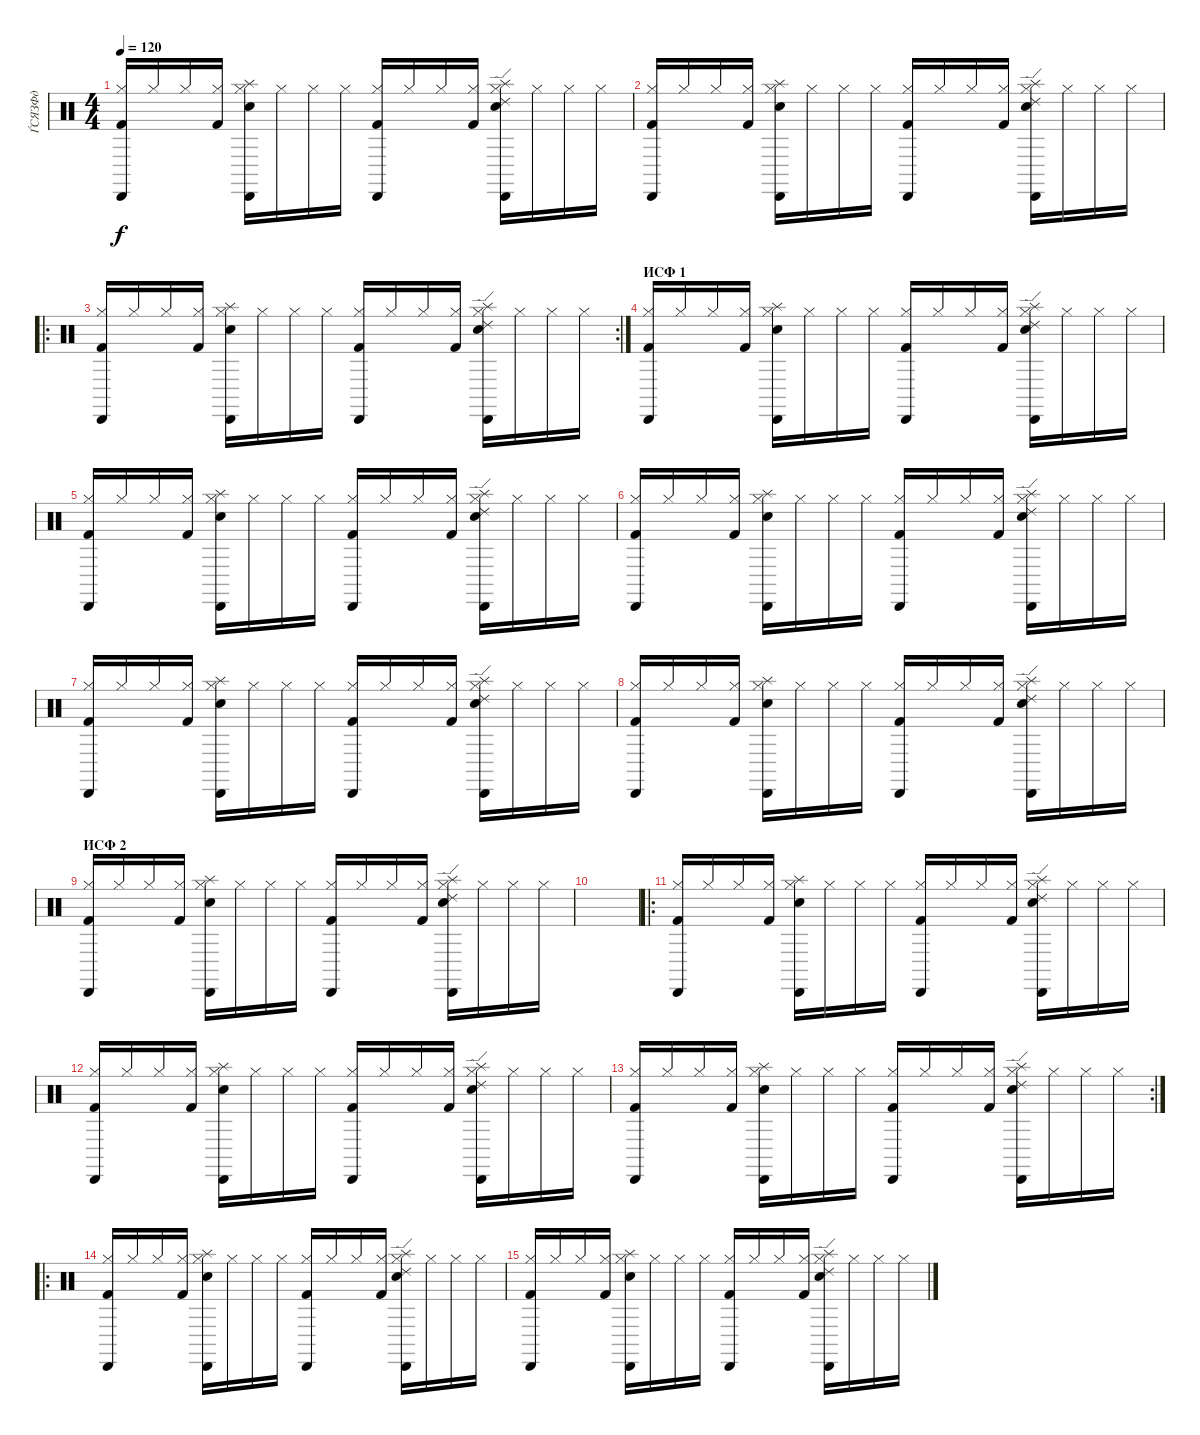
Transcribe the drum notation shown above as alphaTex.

\track ("ЃСЯЗФд" "ЃСЯЗФд") {instrument percussion}
\staff {score}
\articulation defaults
\ts (4 4)
\tempo 120
\clef neutral
\ks aminor
("Hi-Hat (closed)" "Kick (hit) 2" "Cabasa (hit)").16{dy f volume 12} "Hi-Hat (closed)".16 "Hi-Hat (closed)".16 ("Hi-Hat (closed)" "Kick (hit) 2").16 ("Hi-Hat (closed)" "Snare (hit) 2" "Cabasa (hit)" "Splash (hit)").16 "Hi-Hat (closed)".16 "Hi-Hat (closed)".16 "Hi-Hat (closed)".16 ("Hi-Hat (closed)" "Kick (hit) 2" "Cabasa (hit)").16 "Hi-Hat (closed)".16 "Hi-Hat (closed)".16 ("Hi-Hat (closed)" "Kick (hit) 2").16 ("Hi-Hat (closed)" "Snare (hit) 2" "Cabasa (hit)" "Ride (edge) 2" "Splash (hit)").16 "Hi-Hat (closed)".16 "Hi-Hat (closed)".16 "Hi-Hat (closed)".16 |
("Hi-Hat (closed)" "Kick (hit) 2" "Cabasa (hit)").16{volume 12} "Hi-Hat (closed)".16 "Hi-Hat (closed)".16 ("Hi-Hat (closed)" "Kick (hit) 2").16 ("Hi-Hat (closed)" "Snare (hit) 2" "Cabasa (hit)" "Splash (hit)").16 "Hi-Hat (closed)".16 "Hi-Hat (closed)".16 "Hi-Hat (closed)".16 ("Hi-Hat (closed)" "Kick (hit) 2" "Cabasa (hit)").16 "Hi-Hat (closed)".16 "Hi-Hat (closed)".16 ("Hi-Hat (closed)" "Kick (hit) 2").16 ("Hi-Hat (closed)" "Snare (hit) 2" "Cabasa (hit)" "Ride (edge) 2" "Splash (hit)").16 "Hi-Hat (closed)".16 "Hi-Hat (closed)".16 "Hi-Hat (closed)".16 |
\ro
\rc 2
("Hi-Hat (closed)" "Kick (hit) 2" "Cabasa (hit)").16{volume 12} "Hi-Hat (closed)".16 "Hi-Hat (closed)".16 ("Hi-Hat (closed)" "Kick (hit) 2").16 ("Hi-Hat (closed)" "Snare (hit) 2" "Cabasa (hit)" "Splash (hit)").16 "Hi-Hat (closed)".16 "Hi-Hat (closed)".16 "Hi-Hat (closed)".16 ("Hi-Hat (closed)" "Kick (hit) 2" "Cabasa (hit)").16 "Hi-Hat (closed)".16 "Hi-Hat (closed)".16 ("Hi-Hat (closed)" "Kick (hit) 2").16 ("Hi-Hat (closed)" "Snare (hit) 2" "Cabasa (hit)" "Ride (edge) 2" "Splash (hit)").16 "Hi-Hat (closed)".16 "Hi-Hat (closed)".16 "Hi-Hat (closed)".16 |
\section ("" "ИСФ 1")
("Hi-Hat (closed)" "Kick (hit) 2" "Cabasa (hit)").16{volume 12} "Hi-Hat (closed)".16 "Hi-Hat (closed)".16 ("Hi-Hat (closed)" "Kick (hit) 2").16 ("Hi-Hat (closed)" "Snare (hit) 2" "Cabasa (hit)" "Splash (hit)").16 "Hi-Hat (closed)".16 "Hi-Hat (closed)".16 "Hi-Hat (closed)".16 ("Hi-Hat (closed)" "Kick (hit) 2" "Cabasa (hit)").16 "Hi-Hat (closed)".16 "Hi-Hat (closed)".16 ("Hi-Hat (closed)" "Kick (hit) 2").16 ("Hi-Hat (closed)" "Snare (hit) 2" "Cabasa (hit)" "Ride (edge) 2" "Splash (hit)").16 "Hi-Hat (closed)".16 "Hi-Hat (closed)".16 "Hi-Hat (closed)".16 |
("Hi-Hat (closed)" "Kick (hit) 2" "Cabasa (hit)").16{volume 12} "Hi-Hat (closed)".16 "Hi-Hat (closed)".16 ("Hi-Hat (closed)" "Kick (hit) 2").16 ("Hi-Hat (closed)" "Snare (hit) 2" "Cabasa (hit)" "Splash (hit)").16 "Hi-Hat (closed)".16 "Hi-Hat (closed)".16 "Hi-Hat (closed)".16 ("Hi-Hat (closed)" "Kick (hit) 2" "Cabasa (hit)").16 "Hi-Hat (closed)".16 "Hi-Hat (closed)".16 ("Hi-Hat (closed)" "Kick (hit) 2").16 ("Hi-Hat (closed)" "Snare (hit) 2" "Cabasa (hit)" "Ride (edge) 2" "Splash (hit)").16 "Hi-Hat (closed)".16 "Hi-Hat (closed)".16 "Hi-Hat (closed)".16 |
("Hi-Hat (closed)" "Kick (hit) 2" "Cabasa (hit)").16{volume 12} "Hi-Hat (closed)".16 "Hi-Hat (closed)".16 ("Hi-Hat (closed)" "Kick (hit) 2").16 ("Hi-Hat (closed)" "Snare (hit) 2" "Cabasa (hit)" "Splash (hit)").16 "Hi-Hat (closed)".16 "Hi-Hat (closed)".16 "Hi-Hat (closed)".16 ("Hi-Hat (closed)" "Kick (hit) 2" "Cabasa (hit)").16 "Hi-Hat (closed)".16 "Hi-Hat (closed)".16 ("Hi-Hat (closed)" "Kick (hit) 2").16 ("Hi-Hat (closed)" "Snare (hit) 2" "Cabasa (hit)" "Ride (edge) 2" "Splash (hit)").16 "Hi-Hat (closed)".16 "Hi-Hat (closed)".16 "Hi-Hat (closed)".16 |
("Hi-Hat (closed)" "Kick (hit) 2" "Cabasa (hit)").16{volume 12} "Hi-Hat (closed)".16 "Hi-Hat (closed)".16 ("Hi-Hat (closed)" "Kick (hit) 2").16 ("Hi-Hat (closed)" "Snare (hit) 2" "Cabasa (hit)" "Splash (hit)").16 "Hi-Hat (closed)".16 "Hi-Hat (closed)".16 "Hi-Hat (closed)".16 ("Hi-Hat (closed)" "Kick (hit) 2" "Cabasa (hit)").16 "Hi-Hat (closed)".16 "Hi-Hat (closed)".16 ("Hi-Hat (closed)" "Kick (hit) 2").16 ("Hi-Hat (closed)" "Snare (hit) 2" "Cabasa (hit)" "Ride (edge) 2" "Splash (hit)").16 "Hi-Hat (closed)".16 "Hi-Hat (closed)".16 "Hi-Hat (closed)".16 |
("Hi-Hat (closed)" "Kick (hit) 2" "Cabasa (hit)").16{volume 12} "Hi-Hat (closed)".16 "Hi-Hat (closed)".16 ("Hi-Hat (closed)" "Kick (hit) 2").16 ("Hi-Hat (closed)" "Snare (hit) 2" "Cabasa (hit)" "Splash (hit)").16 "Hi-Hat (closed)".16 "Hi-Hat (closed)".16 "Hi-Hat (closed)".16 ("Hi-Hat (closed)" "Kick (hit) 2" "Cabasa (hit)").16 "Hi-Hat (closed)".16 "Hi-Hat (closed)".16 ("Hi-Hat (closed)" "Kick (hit) 2").16 ("Hi-Hat (closed)" "Snare (hit) 2" "Cabasa (hit)" "Ride (edge) 2" "Splash (hit)").16 "Hi-Hat (closed)".16 "Hi-Hat (closed)".16 "Hi-Hat (closed)".16 |
\section ("" "ИСФ 2")
("Hi-Hat (closed)" "Kick (hit) 2" "Cabasa (hit)").16{volume 12} "Hi-Hat (closed)".16 "Hi-Hat (closed)".16 ("Hi-Hat (closed)" "Kick (hit) 2").16 ("Hi-Hat (closed)" "Snare (hit) 2" "Cabasa (hit)" "Splash (hit)").16 "Hi-Hat (closed)".16 "Hi-Hat (closed)".16 "Hi-Hat (closed)".16 ("Hi-Hat (closed)" "Kick (hit) 2" "Cabasa (hit)").16 "Hi-Hat (closed)".16 "Hi-Hat (closed)".16 ("Hi-Hat (closed)" "Kick (hit) 2").16 ("Hi-Hat (closed)" "Snare (hit) 2" "Cabasa (hit)" "Ride (edge) 2" "Splash (hit)").16 "Hi-Hat (closed)".16 "Hi-Hat (closed)".16 "Hi-Hat (closed)".16 |
|
\ro
("Hi-Hat (closed)" "Kick (hit) 2" "Cabasa (hit)").16{volume 12} "Hi-Hat (closed)".16 "Hi-Hat (closed)".16 ("Hi-Hat (closed)" "Kick (hit) 2").16 ("Hi-Hat (closed)" "Snare (hit) 2" "Cabasa (hit)" "Splash (hit)").16 "Hi-Hat (closed)".16 "Hi-Hat (closed)".16 "Hi-Hat (closed)".16 ("Hi-Hat (closed)" "Kick (hit) 2" "Cabasa (hit)").16 "Hi-Hat (closed)".16 "Hi-Hat (closed)".16 ("Hi-Hat (closed)" "Kick (hit) 2").16 ("Hi-Hat (closed)" "Snare (hit) 2" "Cabasa (hit)" "Ride (edge) 2" "Splash (hit)").16 "Hi-Hat (closed)".16 "Hi-Hat (closed)".16 "Hi-Hat (closed)".16 |
("Hi-Hat (closed)" "Kick (hit) 2" "Cabasa (hit)").16{volume 12} "Hi-Hat (closed)".16 "Hi-Hat (closed)".16 ("Hi-Hat (closed)" "Kick (hit) 2").16 ("Hi-Hat (closed)" "Snare (hit) 2" "Cabasa (hit)" "Splash (hit)").16 "Hi-Hat (closed)".16 "Hi-Hat (closed)".16 "Hi-Hat (closed)".16 ("Hi-Hat (closed)" "Kick (hit) 2" "Cabasa (hit)").16 "Hi-Hat (closed)".16 "Hi-Hat (closed)".16 ("Hi-Hat (closed)" "Kick (hit) 2").16 ("Hi-Hat (closed)" "Snare (hit) 2" "Cabasa (hit)" "Ride (edge) 2" "Splash (hit)").16 "Hi-Hat (closed)".16 "Hi-Hat (closed)".16 "Hi-Hat (closed)".16 |
\rc 2
("Hi-Hat (closed)" "Kick (hit) 2" "Cabasa (hit)").16{volume 12} "Hi-Hat (closed)".16 "Hi-Hat (closed)".16 ("Hi-Hat (closed)" "Kick (hit) 2").16 ("Hi-Hat (closed)" "Snare (hit) 2" "Cabasa (hit)" "Splash (hit)").16 "Hi-Hat (closed)".16 "Hi-Hat (closed)".16 "Hi-Hat (closed)".16 ("Hi-Hat (closed)" "Kick (hit) 2" "Cabasa (hit)").16 "Hi-Hat (closed)".16 "Hi-Hat (closed)".16 ("Hi-Hat (closed)" "Kick (hit) 2").16 ("Hi-Hat (closed)" "Snare (hit) 2" "Cabasa (hit)" "Ride (edge) 2" "Splash (hit)").16 "Hi-Hat (closed)".16 "Hi-Hat (closed)".16 "Hi-Hat (closed)".16 |
\ro
("Hi-Hat (closed)" "Kick (hit) 2" "Cabasa (hit)").16{volume 12} "Hi-Hat (closed)".16 "Hi-Hat (closed)".16 ("Hi-Hat (closed)" "Kick (hit) 2").16 ("Hi-Hat (closed)" "Snare (hit) 2" "Cabasa (hit)" "Splash (hit)").16 "Hi-Hat (closed)".16 "Hi-Hat (closed)".16 "Hi-Hat (closed)".16 ("Hi-Hat (closed)" "Kick (hit) 2" "Cabasa (hit)").16 "Hi-Hat (closed)".16 "Hi-Hat (closed)".16 ("Hi-Hat (closed)" "Kick (hit) 2").16 ("Hi-Hat (closed)" "Snare (hit) 2" "Cabasa (hit)" "Ride (edge) 2" "Splash (hit)").16 "Hi-Hat (closed)".16 "Hi-Hat (closed)".16 "Hi-Hat (closed)".16 |
("Hi-Hat (closed)" "Kick (hit) 2" "Cabasa (hit)").16{volume 12} "Hi-Hat (closed)".16 "Hi-Hat (closed)".16 ("Hi-Hat (closed)" "Kick (hit) 2").16 ("Hi-Hat (closed)" "Snare (hit) 2" "Cabasa (hit)" "Splash (hit)").16 "Hi-Hat (closed)".16 "Hi-Hat (closed)".16 "Hi-Hat (closed)".16 ("Hi-Hat (closed)" "Kick (hit) 2" "Cabasa (hit)").16 "Hi-Hat (closed)".16 "Hi-Hat (closed)".16 ("Hi-Hat (closed)" "Kick (hit) 2").16 ("Hi-Hat (closed)" "Snare (hit) 2" "Cabasa (hit)" "Ride (edge) 2" "Splash (hit)").16 "Hi-Hat (closed)".16 "Hi-Hat (closed)".16 "Hi-Hat (closed)".16
